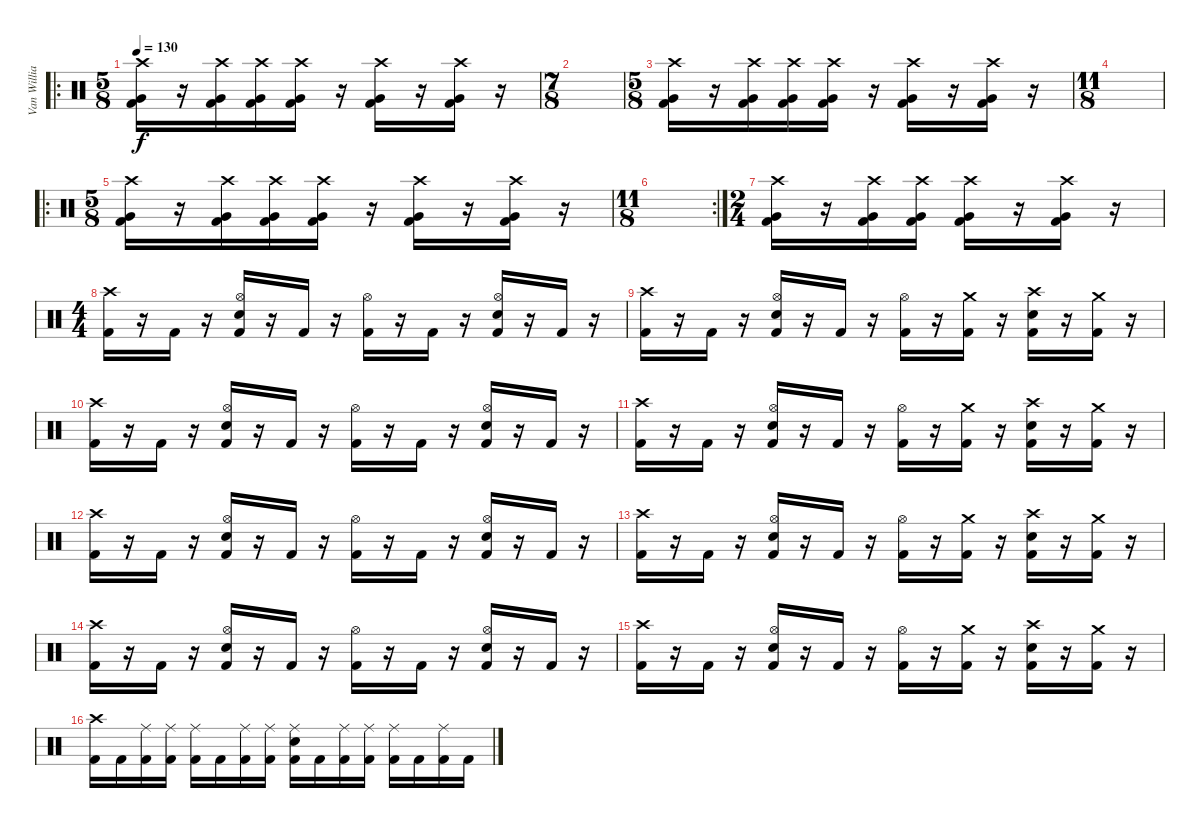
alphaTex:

\track ("Van Williams" "Van Willia") {instrument percussion}
\staff {score}
\articulation defaults
\ro
\ts (5 8)
\tempo 130
\clef neutral
\ks c
("Crash high (hit)" "Kick (hit) 2" "Very Low Tom (hit)").16{dy f} r.16 ("Crash high (hit)" "Kick (hit) 2" "Very Low Tom (hit)").16 ("Crash high (hit)" "Kick (hit) 2" "Very Low Tom (hit)").16 ("Crash high (hit)" "Kick (hit) 2" "Very Low Tom (hit)").16 r.16 ("Crash high (hit)" "Kick (hit) 2" "Very Low Tom (hit)").16 r.16 ("Crash high (hit)" "Kick (hit) 2" "Very Low Tom (hit)").16 r.16 |
\ts (7 8)
|
\ts (5 8)
("Crash high (hit)" "Kick (hit) 2" "Very Low Tom (hit)").16 r.16 ("Crash high (hit)" "Kick (hit) 2" "Very Low Tom (hit)").16 ("Crash high (hit)" "Kick (hit) 2" "Very Low Tom (hit)").16 ("Crash high (hit)" "Kick (hit) 2" "Very Low Tom (hit)").16 r.16 ("Crash high (hit)" "Kick (hit) 2" "Very Low Tom (hit)").16 r.16 ("Crash high (hit)" "Kick (hit) 2" "Very Low Tom (hit)").16 r.16 |
\ts (11 8)
|
\ro
\ts (5 8)
("Crash high (hit)" "Kick (hit) 2" "Very Low Tom (hit)").16 r.16 ("Crash high (hit)" "Kick (hit) 2" "Very Low Tom (hit)").16 ("Crash high (hit)" "Kick (hit) 2" "Very Low Tom (hit)").16 ("Crash high (hit)" "Kick (hit) 2" "Very Low Tom (hit)").16 r.16 ("Crash high (hit)" "Kick (hit) 2" "Very Low Tom (hit)").16 r.16 ("Crash high (hit)" "Kick (hit) 2" "Very Low Tom (hit)").16 r.16 |
\rc 2
\ts (11 8)
|
\ts (2 4)
("Crash high (hit)" "Kick (hit) 2" "Very Low Tom (hit)").16 r.16 ("Crash high (hit)" "Kick (hit) 2" "Very Low Tom (hit)").16 ("Crash high (hit)" "Kick (hit) 2" "Very Low Tom (hit)").16 ("Crash high (hit)" "Kick (hit) 2" "Very Low Tom (hit)").16 r.16 ("Crash high (hit)" "Kick (hit) 2" "Very Low Tom (hit)").16 r.16 |
\ts (4 4)
("Crash high (hit)" "Kick (hit) 2").16 r.16 "Kick (hit) 2".16 r.16 ("Hi-Hat (open)" "Kick (hit) 2" "Electric Snare (hit)").16 r.16 "Kick (hit) 2".16 r.16 ("Hi-Hat (open)" "Kick (hit) 2").16 r.16 "Kick (hit) 2".16 r.16 ("Hi-Hat (open)" "Kick (hit) 2" "Electric Snare (hit)").16 r.16 "Kick (hit) 2".16 r.16 |
("Crash high (hit)" "Kick (hit) 2").16 r.16 "Kick (hit) 2".16 r.16 ("Hi-Hat (open)" "Kick (hit) 2" "Electric Snare (hit)").16 r.16 "Kick (hit) 2".16 r.16 ("Hi-Hat (open)" "Kick (hit) 2").16 r.16 ("Crash medium (hit)" "Kick (hit) 2").16 r.16 ("Crash high (hit)" "Kick (hit) 2" "Electric Snare (hit)").16 r.16 ("Crash medium (hit)" "Kick (hit) 2").16 r.16 |
("Crash high (hit)" "Kick (hit) 2").16 r.16 "Kick (hit) 2".16 r.16 ("Hi-Hat (open)" "Kick (hit) 2" "Electric Snare (hit)").16 r.16 "Kick (hit) 2".16 r.16 ("Hi-Hat (open)" "Kick (hit) 2").16 r.16 "Kick (hit) 2".16 r.16 ("Hi-Hat (open)" "Kick (hit) 2" "Electric Snare (hit)").16 r.16 "Kick (hit) 2".16 r.16 |
("Crash high (hit)" "Kick (hit) 2").16 r.16 "Kick (hit) 2".16 r.16 ("Hi-Hat (open)" "Kick (hit) 2" "Electric Snare (hit)").16 r.16 "Kick (hit) 2".16 r.16 ("Hi-Hat (open)" "Kick (hit) 2").16 r.16 ("Crash medium (hit)" "Kick (hit) 2").16 r.16 ("Crash high (hit)" "Kick (hit) 2" "Electric Snare (hit)").16 r.16 ("Crash medium (hit)" "Kick (hit) 2").16 r.16 |
("Crash high (hit)" "Kick (hit) 2").16 r.16 "Kick (hit) 2".16 r.16 ("Hi-Hat (open)" "Kick (hit) 2" "Electric Snare (hit)").16 r.16 "Kick (hit) 2".16 r.16 ("Hi-Hat (open)" "Kick (hit) 2").16 r.16 "Kick (hit) 2".16 r.16 ("Hi-Hat (open)" "Kick (hit) 2" "Electric Snare (hit)").16 r.16 "Kick (hit) 2".16 r.16 |
("Crash high (hit)" "Kick (hit) 2").16 r.16 "Kick (hit) 2".16 r.16 ("Hi-Hat (open)" "Kick (hit) 2" "Electric Snare (hit)").16 r.16 "Kick (hit) 2".16 r.16 ("Hi-Hat (open)" "Kick (hit) 2").16 r.16 ("Crash medium (hit)" "Kick (hit) 2").16 r.16 ("Crash high (hit)" "Kick (hit) 2" "Electric Snare (hit)").16 r.16 ("Crash medium (hit)" "Kick (hit) 2").16 r.16 |
("Crash high (hit)" "Kick (hit) 2").16 r.16 "Kick (hit) 2".16 r.16 ("Hi-Hat (open)" "Kick (hit) 2" "Electric Snare (hit)").16 r.16 "Kick (hit) 2".16 r.16 ("Hi-Hat (open)" "Kick (hit) 2").16 r.16 "Kick (hit) 2".16 r.16 ("Hi-Hat (open)" "Kick (hit) 2" "Electric Snare (hit)").16 r.16 "Kick (hit) 2".16 r.16 |
("Crash high (hit)" "Kick (hit) 2").16 r.16 "Kick (hit) 2".16 r.16 ("Hi-Hat (open)" "Kick (hit) 2" "Electric Snare (hit)").16 r.16 "Kick (hit) 2".16 r.16 ("Hi-Hat (open)" "Kick (hit) 2").16 r.16 ("Crash medium (hit)" "Kick (hit) 2").16 r.16 ("Crash high (hit)" "Kick (hit) 2" "Electric Snare (hit)").16 r.16 ("Crash medium (hit)" "Kick (hit) 2").16 r.16 |
("Crash high (hit)" "Kick (hit) 2").16 "Kick (hit) 2".16 ("Ride (middle)" "Kick (hit) 2").16 ("Ride (middle)" "Kick (hit) 2").16 ("Ride (middle)" "Kick (hit) 2").16 "Kick (hit) 2".16 ("Ride (middle)" "Kick (hit) 2").16 ("Ride (middle)" "Kick (hit) 2").16 ("Ride (middle)" "Kick (hit) 2" "Electric Snare (hit)").16 "Kick (hit) 2".16 ("Ride (middle)" "Kick (hit) 2").16 ("Ride (middle)" "Kick (hit) 2").16 ("Ride (middle)" "Kick (hit) 2").16 "Kick (hit) 2".16 ("Ride (middle)" "Kick (hit) 2").16 "Kick (hit) 2".16
